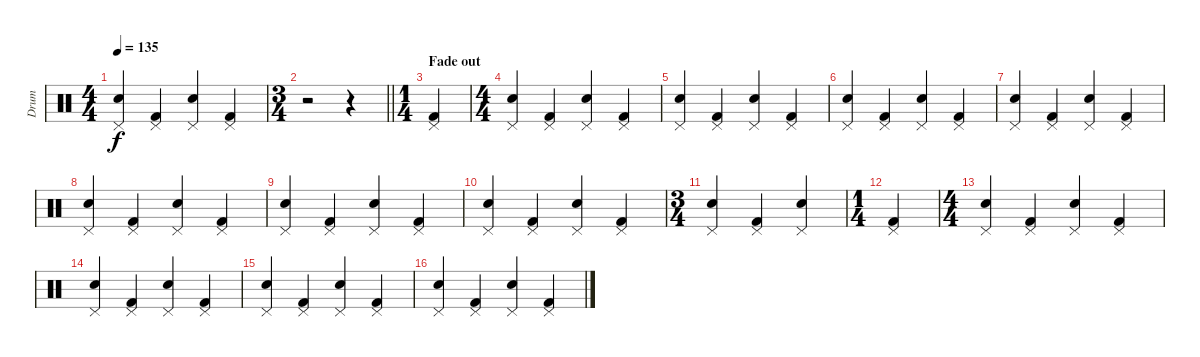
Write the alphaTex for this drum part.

\track ("Drum" "Drum") {instrument percussion}
\staff {score}
\articulation defaults
\ts (4 4)
\tempo 135
\clef neutral
\ks c
("Electric Snare (hit)" "Pedal Hi-Hat (hit)").4{dy f} ("Kick (hit) 2" "Pedal Hi-Hat (hit)").4 ("Electric Snare (hit)" "Pedal Hi-Hat (hit)").4 ("Kick (hit) 2" "Pedal Hi-Hat (hit)").4 |
\ts (3 4)
\barLineRight lightlight
r.2 r.4 |
\ts (1 4)
\section ("" "Fade out")
("Kick (hit) 2" "Pedal Hi-Hat (hit)").4 |
\ts (4 4)
("Electric Snare (hit)" "Pedal Hi-Hat (hit)").4 ("Kick (hit) 2" "Pedal Hi-Hat (hit)").4 ("Electric Snare (hit)" "Pedal Hi-Hat (hit)").4 ("Kick (hit) 2" "Pedal Hi-Hat (hit)").4 |
("Electric Snare (hit)" "Pedal Hi-Hat (hit)").4 ("Kick (hit) 2" "Pedal Hi-Hat (hit)").4 ("Electric Snare (hit)" "Pedal Hi-Hat (hit)").4 ("Kick (hit) 2" "Pedal Hi-Hat (hit)").4 |
("Electric Snare (hit)" "Pedal Hi-Hat (hit)").4 ("Kick (hit) 2" "Pedal Hi-Hat (hit)").4 ("Electric Snare (hit)" "Pedal Hi-Hat (hit)").4 ("Kick (hit) 2" "Pedal Hi-Hat (hit)").4 |
("Electric Snare (hit)" "Pedal Hi-Hat (hit)").4 ("Kick (hit) 2" "Pedal Hi-Hat (hit)").4 ("Electric Snare (hit)" "Pedal Hi-Hat (hit)").4 ("Kick (hit) 2" "Pedal Hi-Hat (hit)").4 |
("Electric Snare (hit)" "Pedal Hi-Hat (hit)").4 ("Kick (hit) 2" "Pedal Hi-Hat (hit)").4 ("Electric Snare (hit)" "Pedal Hi-Hat (hit)").4 ("Kick (hit) 2" "Pedal Hi-Hat (hit)").4 |
("Electric Snare (hit)" "Pedal Hi-Hat (hit)").4 ("Kick (hit) 2" "Pedal Hi-Hat (hit)").4 ("Electric Snare (hit)" "Pedal Hi-Hat (hit)").4 ("Kick (hit) 2" "Pedal Hi-Hat (hit)").4 |
("Electric Snare (hit)" "Pedal Hi-Hat (hit)").4 ("Kick (hit) 2" "Pedal Hi-Hat (hit)").4 ("Electric Snare (hit)" "Pedal Hi-Hat (hit)").4 ("Kick (hit) 2" "Pedal Hi-Hat (hit)").4 |
\ts (3 4)
("Electric Snare (hit)" "Pedal Hi-Hat (hit)").4 ("Kick (hit) 2" "Pedal Hi-Hat (hit)").4 ("Electric Snare (hit)" "Pedal Hi-Hat (hit)").4 |
\ts (1 4)
("Kick (hit) 2" "Pedal Hi-Hat (hit)").4 |
\ts (4 4)
("Electric Snare (hit)" "Pedal Hi-Hat (hit)").4 ("Kick (hit) 2" "Pedal Hi-Hat (hit)").4 ("Electric Snare (hit)" "Pedal Hi-Hat (hit)").4 ("Kick (hit) 2" "Pedal Hi-Hat (hit)").4 |
("Electric Snare (hit)" "Pedal Hi-Hat (hit)").4 ("Kick (hit) 2" "Pedal Hi-Hat (hit)").4 ("Electric Snare (hit)" "Pedal Hi-Hat (hit)").4 ("Kick (hit) 2" "Pedal Hi-Hat (hit)").4 |
("Electric Snare (hit)" "Pedal Hi-Hat (hit)").4 ("Kick (hit) 2" "Pedal Hi-Hat (hit)").4 ("Electric Snare (hit)" "Pedal Hi-Hat (hit)").4 ("Kick (hit) 2" "Pedal Hi-Hat (hit)").4 |
("Electric Snare (hit)" "Pedal Hi-Hat (hit)").4 ("Kick (hit) 2" "Pedal Hi-Hat (hit)").4 ("Electric Snare (hit)" "Pedal Hi-Hat (hit)").4 ("Kick (hit) 2" "Pedal Hi-Hat (hit)").4
